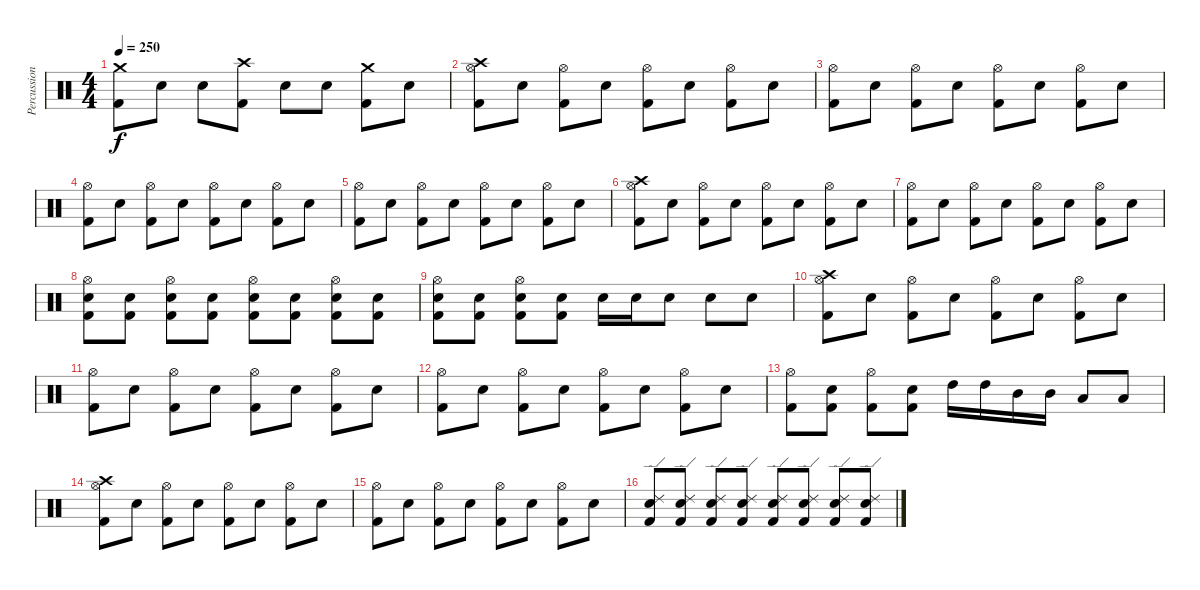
\track ("Percussion" "Percussion") {instrument percussion}
\staff {score}
\articulation defaults
\ts (4 4)
\tempo 250
\clef neutral
\ks c
("Crash medium (hit)" "Kick (hit) 2").8{dy f} "Electric Snare (hit)".8 "Electric Snare (hit)".8 ("Crash high (hit)" "Kick (hit) 2").8 "Electric Snare (hit)".8 "Electric Snare (hit)".8 ("Crash medium (hit)" "Kick (hit) 2").8 "Electric Snare (hit)".8 |
("Crash high (hit)" "Hi-Hat (open)" "Kick (hit) 2").8 "Electric Snare (hit)".8 ("Hi-Hat (open)" "Kick (hit) 2").8 "Electric Snare (hit)".8 ("Hi-Hat (open)" "Kick (hit) 2").8 "Electric Snare (hit)".8 ("Hi-Hat (open)" "Kick (hit) 2").8 "Electric Snare (hit)".8 |
("Hi-Hat (open)" "Kick (hit) 2").8 "Electric Snare (hit)".8 ("Hi-Hat (open)" "Kick (hit) 2").8 "Electric Snare (hit)".8 ("Hi-Hat (open)" "Kick (hit) 2").8 "Electric Snare (hit)".8 ("Hi-Hat (open)" "Kick (hit) 2").8 "Electric Snare (hit)".8 |
("Hi-Hat (open)" "Kick (hit) 2").8 "Electric Snare (hit)".8 ("Hi-Hat (open)" "Kick (hit) 2").8 "Electric Snare (hit)".8 ("Hi-Hat (open)" "Kick (hit) 2").8 "Electric Snare (hit)".8 ("Hi-Hat (open)" "Kick (hit) 2").8 "Electric Snare (hit)".8 |
("Hi-Hat (open)" "Kick (hit) 2").8 "Electric Snare (hit)".8 ("Hi-Hat (open)" "Kick (hit) 2").8 "Electric Snare (hit)".8 ("Hi-Hat (open)" "Kick (hit) 2").8 "Electric Snare (hit)".8 ("Hi-Hat (open)" "Kick (hit) 2").8 "Electric Snare (hit)".8 |
("Crash high (hit)" "Hi-Hat (open)" "Kick (hit) 2").8 "Electric Snare (hit)".8 ("Hi-Hat (open)" "Kick (hit) 2").8 "Electric Snare (hit)".8 ("Hi-Hat (open)" "Kick (hit) 2").8 "Electric Snare (hit)".8 ("Hi-Hat (open)" "Kick (hit) 2").8 "Electric Snare (hit)".8 |
("Hi-Hat (open)" "Kick (hit) 2").8 "Electric Snare (hit)".8 ("Hi-Hat (open)" "Kick (hit) 2").8 "Electric Snare (hit)".8 ("Hi-Hat (open)" "Kick (hit) 2").8 "Electric Snare (hit)".8 ("Hi-Hat (open)" "Kick (hit) 2").8 "Electric Snare (hit)".8 |
("Hi-Hat (open)" "Electric Snare (hit)" "Kick (hit) 2").8 ("Electric Snare (hit)" "Kick (hit) 2").8 ("Hi-Hat (open)" "Electric Snare (hit)" "Kick (hit) 2").8 ("Electric Snare (hit)" "Kick (hit) 2").8 ("Hi-Hat (open)" "Electric Snare (hit)" "Kick (hit) 2").8 ("Electric Snare (hit)" "Kick (hit) 2").8 ("Hi-Hat (open)" "Electric Snare (hit)" "Kick (hit) 2").8 ("Electric Snare (hit)" "Kick (hit) 2").8 |
("Hi-Hat (open)" "Electric Snare (hit)" "Kick (hit) 2").8 ("Electric Snare (hit)" "Kick (hit) 2").8 ("Hi-Hat (open)" "Electric Snare (hit)" "Kick (hit) 2").8 ("Electric Snare (hit)" "Kick (hit) 2").8 "Electric Snare (hit)".16 "Electric Snare (hit)".16 "Electric Snare (hit)".8 "Electric Snare (hit)".8 "Electric Snare (hit)".8 |
("Crash high (hit)" "Hi-Hat (open)" "Kick (hit) 2").8 "Electric Snare (hit)".8 ("Hi-Hat (open)" "Kick (hit) 2").8 "Electric Snare (hit)".8 ("Hi-Hat (open)" "Kick (hit) 2").8 "Electric Snare (hit)".8 ("Hi-Hat (open)" "Kick (hit) 2").8 "Electric Snare (hit)".8 |
("Hi-Hat (open)" "Kick (hit) 2").8 "Electric Snare (hit)".8 ("Hi-Hat (open)" "Kick (hit) 2").8 "Electric Snare (hit)".8 ("Hi-Hat (open)" "Kick (hit) 2").8 "Electric Snare (hit)".8 ("Hi-Hat (open)" "Kick (hit) 2").8 "Electric Snare (hit)".8 |
("Hi-Hat (open)" "Kick (hit) 2").8 "Electric Snare (hit)".8 ("Hi-Hat (open)" "Kick (hit) 2").8 "Electric Snare (hit)".8 ("Hi-Hat (open)" "Kick (hit) 2").8 "Electric Snare (hit)".8 ("Hi-Hat (open)" "Kick (hit) 2").8 "Electric Snare (hit)".8 |
("Hi-Hat (open)" "Kick (hit) 2").8 ("Electric Snare (hit)" "Kick (hit) 2").8 ("Hi-Hat (open)" "Kick (hit) 2").8 ("Electric Snare (hit)" "Kick (hit) 2").8 "High Tom (hit)".16 "High Tom (hit)".16 "Mid Tom (hit)".16 "Mid Tom (hit)".16 "Low Tom (hit)".8 "Low Tom (hit)".8 |
("Crash high (hit)" "Hi-Hat (open)" "Kick (hit) 2").8 "Electric Snare (hit)".8 ("Hi-Hat (open)" "Kick (hit) 2").8 "Electric Snare (hit)".8 ("Hi-Hat (open)" "Kick (hit) 2").8 "Electric Snare (hit)".8 ("Hi-Hat (open)" "Kick (hit) 2").8 "Electric Snare (hit)".8 |
("Hi-Hat (open)" "Kick (hit) 2").8 "Electric Snare (hit)".8 ("Hi-Hat (open)" "Kick (hit) 2").8 "Electric Snare (hit)".8 ("Hi-Hat (open)" "Kick (hit) 2").8 "Electric Snare (hit)".8 ("Hi-Hat (open)" "Kick (hit) 2").8 "Electric Snare (hit)".8 |
("Ride (edge) 2" "Electric Snare (hit)" "Kick (hit) 2").8 ("Ride (edge) 2" "Electric Snare (hit)" "Kick (hit) 2").8 ("Ride (edge) 2" "Electric Snare (hit)" "Kick (hit) 2").8 ("Ride (edge) 2" "Electric Snare (hit)" "Kick (hit) 2").8 ("Ride (edge) 2" "Electric Snare (hit)" "Kick (hit) 2").8 ("Ride (edge) 2" "Electric Snare (hit)" "Kick (hit) 2").8 ("Ride (edge) 2" "Electric Snare (hit)" "Kick (hit) 2").8 ("Ride (edge) 2" "Electric Snare (hit)" "Kick (hit) 2").8
